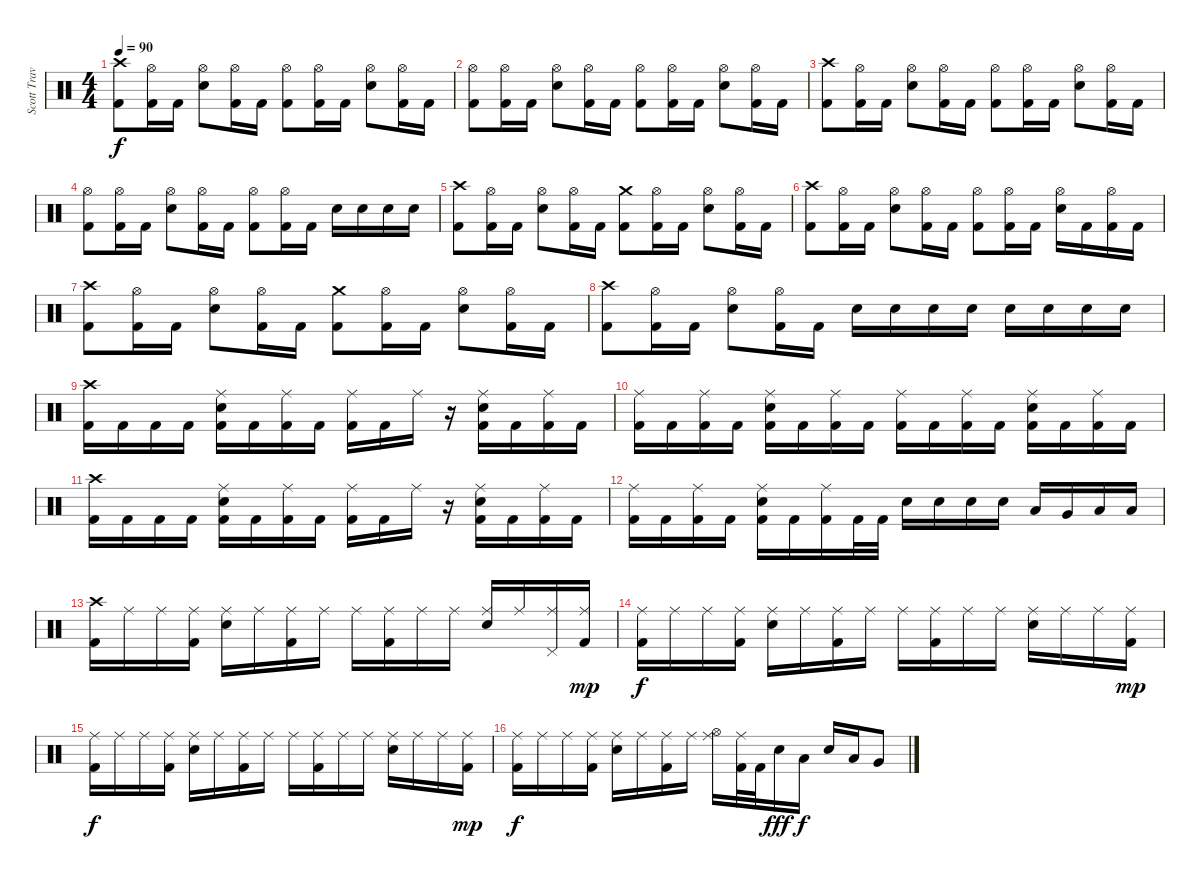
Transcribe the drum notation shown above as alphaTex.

\track ("Scott Travis" "Scott Trav") {instrument percussion}
\staff {score}
\articulation defaults
\ts (4 4)
\tempo 90
\clef neutral
\ks c
("Kick (hit) 2" "Crash high (hit)").8{dy f} ("Kick (hit) 2" "Hi-Hat (open)").16 "Kick (hit) 2".16 ("Electric Snare (hit)" "Hi-Hat (open)").8 ("Kick (hit) 2" "Hi-Hat (open)").16 "Kick (hit) 2".16 ("Kick (hit) 2" "Hi-Hat (open)").8 ("Kick (hit) 2" "Hi-Hat (open)").16 "Kick (hit) 2".16 ("Electric Snare (hit)" "Hi-Hat (open)").8 ("Kick (hit) 2" "Hi-Hat (open)").16 "Kick (hit) 2".16 |
("Kick (hit) 2" "Hi-Hat (open)").8 ("Kick (hit) 2" "Hi-Hat (open)").16 "Kick (hit) 2".16 ("Electric Snare (hit)" "Hi-Hat (open)").8 ("Kick (hit) 2" "Hi-Hat (open)").16 "Kick (hit) 2".16 ("Kick (hit) 2" "Hi-Hat (open)").8 ("Kick (hit) 2" "Hi-Hat (open)").16 "Kick (hit) 2".16 ("Electric Snare (hit)" "Hi-Hat (open)").8 ("Kick (hit) 2" "Hi-Hat (open)").16 "Kick (hit) 2".16 |
("Kick (hit) 2" "Crash high (hit)").8 ("Kick (hit) 2" "Hi-Hat (open)").16 "Kick (hit) 2".16 ("Electric Snare (hit)" "Hi-Hat (open)").8 ("Kick (hit) 2" "Hi-Hat (open)").16 "Kick (hit) 2".16 ("Kick (hit) 2" "Hi-Hat (open)").8 ("Kick (hit) 2" "Hi-Hat (open)").16 "Kick (hit) 2".16 ("Electric Snare (hit)" "Hi-Hat (open)").8 ("Kick (hit) 2" "Hi-Hat (open)").16 "Kick (hit) 2".16 |
("Kick (hit) 2" "Hi-Hat (open)").8 ("Kick (hit) 2" "Hi-Hat (open)").16 "Kick (hit) 2".16 ("Electric Snare (hit)" "Hi-Hat (open)").8 ("Kick (hit) 2" "Hi-Hat (open)").16 "Kick (hit) 2".16 ("Kick (hit) 2" "Hi-Hat (open)").8 ("Kick (hit) 2" "Hi-Hat (open)").16 "Kick (hit) 2".16 "Electric Snare (hit)".16 "Electric Snare (hit)".16 "Electric Snare (hit)".16 "Electric Snare (hit)".16 |
("Kick (hit) 2" "Crash high (hit)").8 ("Kick (hit) 2" "Hi-Hat (open)").16 "Kick (hit) 2".16 ("Electric Snare (hit)" "Hi-Hat (open)").8 ("Kick (hit) 2" "Hi-Hat (open)").16 "Kick (hit) 2".16 ("Kick (hit) 2" "Crash medium (hit)").8 ("Kick (hit) 2" "Hi-Hat (open)").16 "Kick (hit) 2".16 ("Electric Snare (hit)" "Hi-Hat (open)").8 ("Kick (hit) 2" "Hi-Hat (open)").16 "Kick (hit) 2".16 |
("Kick (hit) 2" "Crash high (hit)").8 ("Kick (hit) 2" "Hi-Hat (open)").16 "Kick (hit) 2".16 ("Electric Snare (hit)" "Hi-Hat (open)").8 ("Kick (hit) 2" "Hi-Hat (open)").16 "Kick (hit) 2".16 ("Kick (hit) 2" "Hi-Hat (open)").8 ("Kick (hit) 2" "Hi-Hat (open)").16 "Kick (hit) 2".16 ("Electric Snare (hit)" "Hi-Hat (open)").16 "Kick (hit) 2".16 ("Kick (hit) 2" "Hi-Hat (open)").16 "Kick (hit) 2".16 |
("Kick (hit) 2" "Crash high (hit)").8 ("Kick (hit) 2" "Hi-Hat (open)").16 "Kick (hit) 2".16 ("Electric Snare (hit)" "Hi-Hat (open)").8 ("Kick (hit) 2" "Hi-Hat (open)").16 "Kick (hit) 2".16 ("Kick (hit) 2" "Crash medium (hit)").8 ("Kick (hit) 2" "Hi-Hat (open)").16 "Kick (hit) 2".16 ("Electric Snare (hit)" "Hi-Hat (open)").8 ("Kick (hit) 2" "Hi-Hat (open)").16 "Kick (hit) 2".16 |
("Kick (hit) 2" "Crash high (hit)").8 ("Kick (hit) 2" "Hi-Hat (open)").16 "Kick (hit) 2".16 ("Electric Snare (hit)" "Hi-Hat (open)").8 ("Kick (hit) 2" "Hi-Hat (open)").16 "Kick (hit) 2".16 "Electric Snare (hit)".16 "Electric Snare (hit)".16 "Electric Snare (hit)".16 "Electric Snare (hit)".16 "Electric Snare (hit)".16 "Electric Snare (hit)".16 "Electric Snare (hit)".16 "Electric Snare (hit)".16 |
("Kick (hit) 2" "Crash high (hit)").16 "Kick (hit) 2".16 "Kick (hit) 2".16 "Kick (hit) 2".16 ("Kick (hit) 2" "Ride (middle)" "Electric Snare (hit)").16 "Kick (hit) 2".16 ("Kick (hit) 2" "Ride (middle)").16 "Kick (hit) 2".16 ("Kick (hit) 2" "Ride (middle)").16 "Kick (hit) 2".16 "Ride (middle)".16 r.16 ("Kick (hit) 2" "Electric Snare (hit)" "Ride (middle)").16 "Kick (hit) 2".16 ("Kick (hit) 2" "Ride (middle)").16 "Kick (hit) 2".16 |
("Kick (hit) 2" "Ride (middle)").16 "Kick (hit) 2".16 ("Kick (hit) 2" "Ride (middle)").16 "Kick (hit) 2".16 ("Kick (hit) 2" "Ride (middle)" "Electric Snare (hit)").16 "Kick (hit) 2".16 ("Kick (hit) 2" "Ride (middle)").16 "Kick (hit) 2".16 ("Kick (hit) 2" "Ride (middle)").16 "Kick (hit) 2".16 ("Kick (hit) 2" "Ride (middle)").16 "Kick (hit) 2".16 ("Kick (hit) 2" "Ride (middle)" "Electric Snare (hit)").16 "Kick (hit) 2".16 ("Kick (hit) 2" "Ride (middle)").16 "Kick (hit) 2".16 |
("Kick (hit) 2" "Crash high (hit)").16 "Kick (hit) 2".16 "Kick (hit) 2".16 "Kick (hit) 2".16 ("Kick (hit) 2" "Ride (middle)" "Electric Snare (hit)").16 "Kick (hit) 2".16 ("Kick (hit) 2" "Ride (middle)").16 "Kick (hit) 2".16 ("Kick (hit) 2" "Ride (middle)").16 "Kick (hit) 2".16 "Ride (middle)".16 r.16 ("Kick (hit) 2" "Electric Snare (hit)" "Ride (middle)").16 "Kick (hit) 2".16 ("Kick (hit) 2" "Ride (middle)").16 "Kick (hit) 2".16 |
("Kick (hit) 2" "Ride (middle)").16 "Kick (hit) 2".16 ("Kick (hit) 2" "Ride (middle)").16 "Kick (hit) 2".16 ("Kick (hit) 2" "Ride (middle)" "Electric Snare (hit)").16 "Kick (hit) 2".16 ("Kick (hit) 2" "Ride (middle)").16 "Kick (hit) 2".32 "Kick (hit) 2".32 "Electric Snare (hit)".16 "Electric Snare (hit)".16 "Electric Snare (hit)".16 "Electric Snare (hit)".16 "Low Tom (hit)".16 "Very Low Tom (hit)".16 "Low Floor Tom (hit)".16 "Low Floor Tom (hit)".16 |
("Kick (hit) 2" "Crash high (hit)").16 "Ride (middle)".16 "Ride (middle)".16 ("Ride (middle)" "Kick (hit) 2").16 ("Ride (middle)" "Electric Snare (hit)").16 "Ride (middle)".16 ("Ride (middle)" "Kick (hit) 2").16 "Ride (middle)".16 "Ride (middle)".16 ("Ride (middle)" "Kick (hit) 2").16 "Ride (middle)".16 "Ride (middle)".16 ("Ride (middle)" "Electric Snare (hit)").16 "Ride (middle)".16 ("Ride (middle)" "Pedal Hi-Hat (hit)").16 ("Ride (middle)" "Kick (hit) 2").16{dy mp} |
("Kick (hit) 2" "Ride (middle)").16{dy f} "Ride (middle)".16 "Ride (middle)".16 ("Ride (middle)" "Kick (hit) 2").16 ("Ride (middle)" "Electric Snare (hit)").16 "Ride (middle)".16 ("Ride (middle)" "Kick (hit) 2").16 "Ride (middle)".16 "Ride (middle)".16 ("Ride (middle)" "Kick (hit) 2").16 "Ride (middle)".16 "Ride (middle)".16 ("Ride (middle)" "Electric Snare (hit)").16 "Ride (middle)".16 "Ride (middle)".16 ("Ride (middle)" "Kick (hit) 2").16{dy mp} |
("Kick (hit) 2" "Ride (middle)").16{dy f} "Ride (middle)".16 "Ride (middle)".16 ("Ride (middle)" "Kick (hit) 2").16 ("Ride (middle)" "Electric Snare (hit)").16 "Ride (middle)".16 ("Ride (middle)" "Kick (hit) 2").16 "Ride (middle)".16 "Ride (middle)".16 ("Ride (middle)" "Kick (hit) 2").16 "Ride (middle)".16 "Ride (middle)".16 ("Ride (middle)" "Electric Snare (hit)").16 "Ride (middle)".16 "Ride (middle)".16 ("Ride (middle)" "Kick (hit) 2").16{dy mp} |
("Kick (hit) 2" "Ride (middle)").16{dy f} "Ride (middle)".16 "Ride (middle)".16 ("Ride (middle)" "Kick (hit) 2").16 ("Ride (middle)" "Electric Snare (hit)").16 "Ride (middle)".16 ("Ride (middle)" "Kick (hit) 2").16 "Ride (middle)".16 ("Ride (middle)" "Hi-Hat (open)").16 ("Ride (middle)" "Kick (hit) 2").32 "Kick (hit) 2".32 "Electric Snare (hit)".16{dy fff} "Low Tom (hit)".16{dy f} "Electric Snare (hit)".16 "Low Tom (hit)".16 "Very Low Tom (hit)".8
